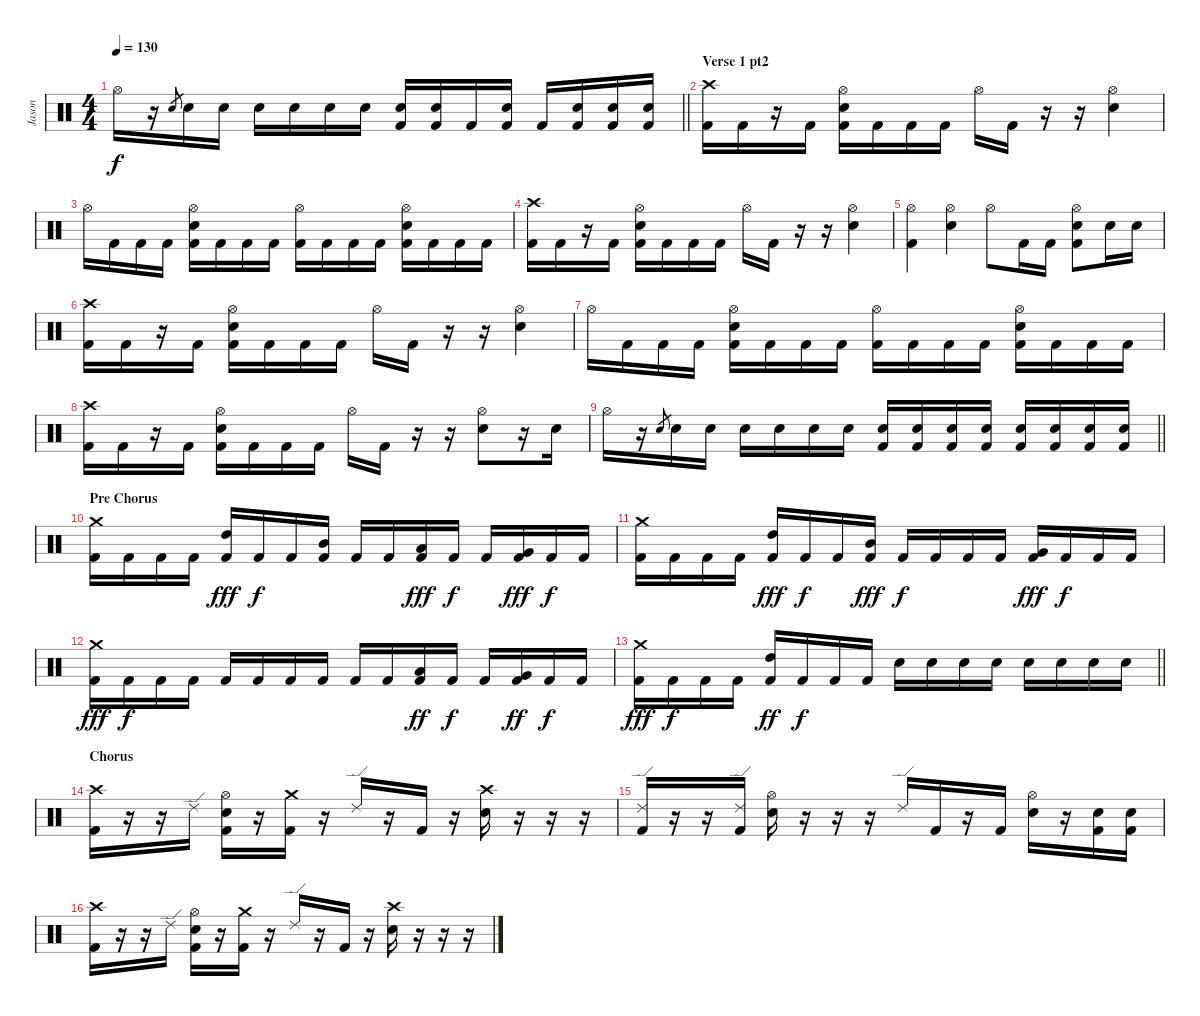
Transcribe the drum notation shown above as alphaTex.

\track ("Jason" "Jason") {instrument percussion}
\staff {score}
\articulation defaults
\ts (4 4)
\tempo 130
\clef neutral
\barLineRight lightlight
\ks c "Hi-Hat (open)".16{dy f}
r.16 "Electric Snare (hit)".8{gr} "Electric Snare (hit)".16 "Electric Snare (hit)".16 "Electric Snare (hit)".16 "Electric Snare (hit)".16 "Electric Snare (hit)".16 "Electric Snare (hit)".16 ("Electric Snare (hit)" "Kick (hit) 2").16 ("Electric Snare (hit)" "Kick (hit) 2").16 "Kick (hit) 2".16 ("Electric Snare (hit)" "Kick (hit) 2").16 "Kick (hit) 2".16 ("Electric Snare (hit)" "Kick (hit) 2").16 ("Electric Snare (hit)" "Kick (hit) 2").16 ("Electric Snare (hit)" "Kick (hit) 2").16 |
\section ("" "Verse 1 pt2")
("Crash high (hit)" "Kick (hit) 2").16 "Kick (hit) 2".16 r.16 "Kick (hit) 2".16 ("Hi-Hat (open)" "Electric Snare (hit)" "Kick (hit) 2").16 "Kick (hit) 2".16 "Kick (hit) 2".16 "Kick (hit) 2".16 "Hi-Hat (open)".16 "Kick (hit) 2".16 r.16 r.16 ("Hi-Hat (open)" "Electric Snare (hit)").4 |
"Hi-Hat (open)".16 "Kick (hit) 2".16 "Kick (hit) 2".16 "Kick (hit) 2".16 ("Hi-Hat (open)" "Electric Snare (hit)" "Kick (hit) 2").16 "Kick (hit) 2".16 "Kick (hit) 2".16 "Kick (hit) 2".16 ("Hi-Hat (open)" "Kick (hit) 2").16 "Kick (hit) 2".16 "Kick (hit) 2".16 "Kick (hit) 2".16 ("Hi-Hat (open)" "Electric Snare (hit)" "Kick (hit) 2").16 "Kick (hit) 2".16 "Kick (hit) 2".16 "Kick (hit) 2".16 |
("Crash high (hit)" "Kick (hit) 2").16 "Kick (hit) 2".16 r.16 "Kick (hit) 2".16 ("Hi-Hat (open)" "Electric Snare (hit)" "Kick (hit) 2").16 "Kick (hit) 2".16 "Kick (hit) 2".16 "Kick (hit) 2".16 "Hi-Hat (open)".16 "Kick (hit) 2".16 r.16 r.16 ("Hi-Hat (open)" "Electric Snare (hit)").4 |
("Hi-Hat (open)" "Kick (hit) 2").4 ("Hi-Hat (open)" "Electric Snare (hit)").4 "Hi-Hat (open)".8 "Kick (hit) 2".16 "Kick (hit) 2".16 ("Hi-Hat (open)" "Electric Snare (hit)" "Kick (hit) 2").8 "Electric Snare (hit)".16 "Electric Snare (hit)".16 |
("Crash high (hit)" "Kick (hit) 2").16 "Kick (hit) 2".16 r.16 "Kick (hit) 2".16 ("Hi-Hat (open)" "Electric Snare (hit)" "Kick (hit) 2").16 "Kick (hit) 2".16 "Kick (hit) 2".16 "Kick (hit) 2".16 "Hi-Hat (open)".16 "Kick (hit) 2".16 r.16 r.16 ("Hi-Hat (open)" "Electric Snare (hit)").4 |
"Hi-Hat (open)".16 "Kick (hit) 2".16 "Kick (hit) 2".16 "Kick (hit) 2".16 ("Hi-Hat (open)" "Electric Snare (hit)" "Kick (hit) 2").16 "Kick (hit) 2".16 "Kick (hit) 2".16 "Kick (hit) 2".16 ("Hi-Hat (open)" "Kick (hit) 2").16 "Kick (hit) 2".16 "Kick (hit) 2".16 "Kick (hit) 2".16 ("Hi-Hat (open)" "Electric Snare (hit)" "Kick (hit) 2").16 "Kick (hit) 2".16 "Kick (hit) 2".16 "Kick (hit) 2".16 |
("Crash high (hit)" "Kick (hit) 2").16 "Kick (hit) 2".16 r.16 "Kick (hit) 2".16 ("Hi-Hat (open)" "Electric Snare (hit)" "Kick (hit) 2").16 "Kick (hit) 2".16 "Kick (hit) 2".16 "Kick (hit) 2".16 "Hi-Hat (open)".16 "Kick (hit) 2".16 r.16 r.16 ("Hi-Hat (open)" "Electric Snare (hit)").8 r.16 "Electric Snare (hit)".16 |
\barLineRight lightlight "Hi-Hat (open)".16
r.16 "Electric Snare (hit)".8{gr} "Electric Snare (hit)".16 "Electric Snare (hit)".16 "Electric Snare (hit)".16 "Electric Snare (hit)".16 "Electric Snare (hit)".16 "Electric Snare (hit)".16 ("Electric Snare (hit)" "Kick (hit) 2").16 ("Electric Snare (hit)" "Kick (hit) 2").16 ("Electric Snare (hit)" "Kick (hit) 2").16 ("Electric Snare (hit)" "Kick (hit) 2").16 ("Electric Snare (hit)" "Kick (hit) 2").16 ("Electric Snare (hit)" "Kick (hit) 2").16 ("Electric Snare (hit)" "Kick (hit) 2").16 ("Electric Snare (hit)" "Kick (hit) 2").16 |
\section ("" "Pre Chorus")
("Crash medium (hit)" "Kick (hit) 2").16 "Kick (hit) 2".16 "Kick (hit) 2".16 "Kick (hit) 2".16 ("High Tom (hit)" "Kick (hit) 2").16{dy fff} "Kick (hit) 2".16{dy f} "Kick (hit) 2".16 ("Mid Tom (hit)" "Kick (hit) 2").16 "Kick (hit) 2".16 "Kick (hit) 2".16 ("Low Tom (hit)" "Kick (hit) 2").16{dy fff} "Kick (hit) 2".16{dy f} "Kick (hit) 2".16 ("Very Low Tom (hit)" "Kick (hit) 2").16{dy fff} "Kick (hit) 2".16{dy f} "Kick (hit) 2".16 |
("Crash medium (hit)" "Kick (hit) 2").16 "Kick (hit) 2".16 "Kick (hit) 2".16 "Kick (hit) 2".16 ("High Tom (hit)" "Kick (hit) 2").16{dy fff} "Kick (hit) 2".16{dy f} "Kick (hit) 2".16 ("Mid Tom (hit)" "Kick (hit) 2").16{dy fff} "Kick (hit) 2".16{dy f} "Kick (hit) 2".16 "Kick (hit) 2".16 "Kick (hit) 2".16 ("Very Low Tom (hit)" "Kick (hit) 2").16{dy fff} "Kick (hit) 2".16{dy f} "Kick (hit) 2".16 "Kick (hit) 2".16 |
("Crash medium (hit)" "Kick (hit) 2").16{dy fff} "Kick (hit) 2".16{dy f} "Kick (hit) 2".16 "Kick (hit) 2".16 "Kick (hit) 2".16 "Kick (hit) 2".16 "Kick (hit) 2".16 "Kick (hit) 2".16 "Kick (hit) 2".16 "Kick (hit) 2".16 ("Low Tom (hit)" "Kick (hit) 2").16{dy ff} "Kick (hit) 2".16{dy f} "Kick (hit) 2".16 ("Very Low Tom (hit)" "Kick (hit) 2").16{dy ff} "Kick (hit) 2".16{dy f} "Kick (hit) 2".16 |
\barLineRight lightlight
("Crash medium (hit)" "Kick (hit) 2").16{dy fff} "Kick (hit) 2".16{dy f} "Kick (hit) 2".16 "Kick (hit) 2".16 ("High Tom (hit)" "Kick (hit) 2").16{dy ff} "Kick (hit) 2".16{dy f} "Kick (hit) 2".16 "Kick (hit) 2".16 "Electric Snare (hit)".16 "Electric Snare (hit)".16 "Electric Snare (hit)".16 "Electric Snare (hit)".16 "Electric Snare (hit)".16 "Electric Snare (hit)".16 "Electric Snare (hit)".16 "Electric Snare (hit)".16 |
\section ("" "Chorus")
("Crash high (hit)" "Kick (hit) 2").16 r.16 r.16 "Ride (edge) 2".16 ("Hi-Hat (open)" "Electric Snare (hit)" "Kick (hit) 2").16 r.16 ("Crash medium (hit)" "Kick (hit) 2").16 r.16 "Ride (edge) 2".16 r.16 "Kick (hit) 2".16 r.16 ("Crash high (hit)" "Electric Snare (hit)").16 r.16 r.16 r.16 |
("Ride (edge) 2" "Kick (hit) 2").16 r.16 r.16 ("Ride (edge) 2" "Kick (hit) 2").16 ("Hi-Hat (open)" "Electric Snare (hit)").16 r.16 r.16 r.16 "Ride (edge) 2".16 "Kick (hit) 2".16 r.16 "Kick (hit) 2".16 ("Hi-Hat (open)" "Electric Snare (hit)").16 r.16 ("Electric Snare (hit)" "Kick (hit) 2").16 ("Electric Snare (hit)" "Kick (hit) 2").16 |
("Crash high (hit)" "Kick (hit) 2").16 r.16 r.16 "Ride (edge) 2".16 ("Hi-Hat (open)" "Electric Snare (hit)" "Kick (hit) 2").16 r.16 ("Crash medium (hit)" "Kick (hit) 2").16 r.16 "Ride (edge) 2".16 r.16 "Kick (hit) 2".16 r.16 ("Crash high (hit)" "Electric Snare (hit)").16 r.16 r.16 r.16
